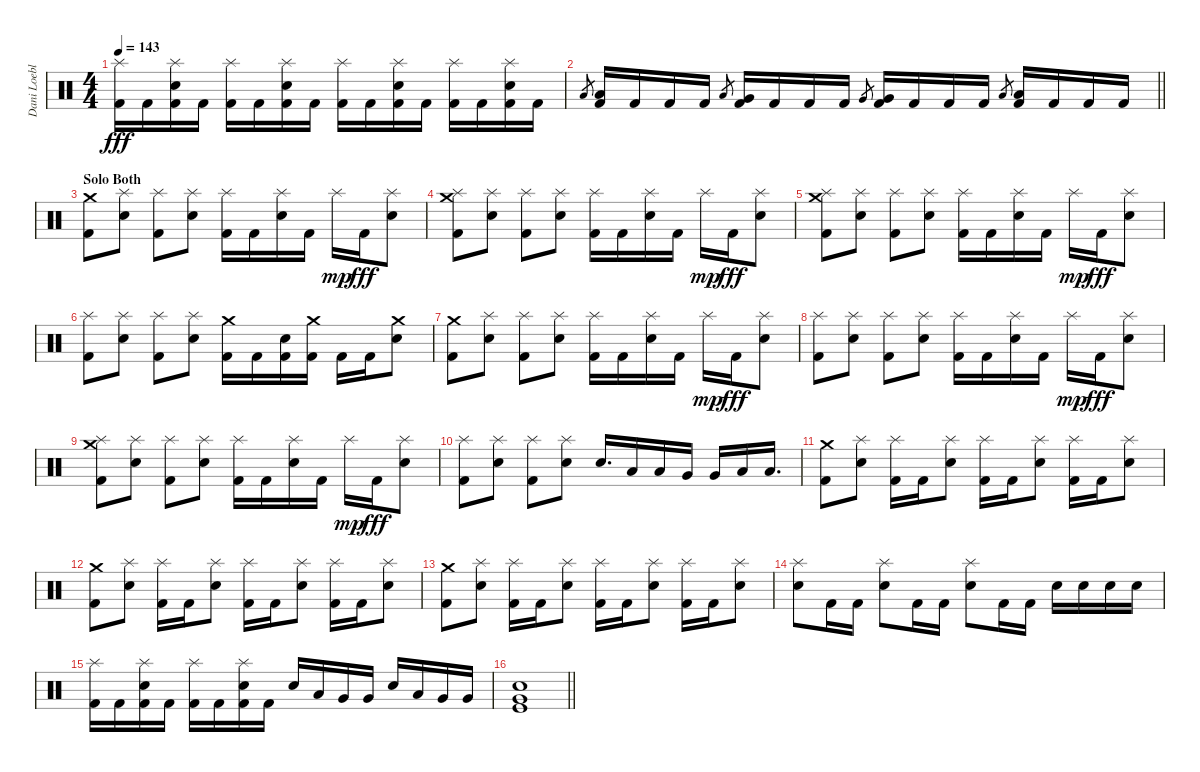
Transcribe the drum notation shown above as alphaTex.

\track ("Dani Loeble" "Dani Loebl") {instrument percussion}
\staff {score}
\articulation defaults
\ts (4 4)
\tempo 143
\clef neutral
\ks c
("Splash (hit)" "Kick (hit) 2").16{dy fff} "Kick (hit) 2".16 ("Splash (hit)" "Electric Snare (hit)" "Kick (hit) 2").16 "Kick (hit) 2".16 ("Splash (hit)" "Kick (hit) 2").16 "Kick (hit) 2".16 ("Splash (hit)" "Electric Snare (hit)" "Kick (hit) 2").16 "Kick (hit) 2".16 ("Splash (hit)" "Kick (hit) 2").16 "Kick (hit) 2".16 ("Splash (hit)" "Electric Snare (hit)" "Kick (hit) 2").16 "Kick (hit) 2".16 ("Splash (hit)" "Kick (hit) 2").16 "Kick (hit) 2".16 ("Splash (hit)" "Electric Snare (hit)" "Kick (hit) 2").16 "Kick (hit) 2".16 |
\barLineRight lightlight "Low Tom (hit)".8{gr}
("Low Tom (hit)" "Kick (hit) 2").16 "Kick (hit) 2".16 "Kick (hit) 2".16 "Kick (hit) 2".16 "Low Tom (hit)".8{gr} ("Very Low Tom (hit)" "Kick (hit) 2").16 "Kick (hit) 2".16 "Kick (hit) 2".16 "Kick (hit) 2".16 "Very Low Tom (hit)".8{gr} ("Very Low Tom (hit)" "Kick (hit) 2").16 "Kick (hit) 2".16 "Kick (hit) 2".16 "Kick (hit) 2".16 "Low Floor Tom (hit)".8{gr} ("Low Floor Tom (hit)" "Kick (hit) 2").16 "Kick (hit) 2".16 "Kick (hit) 2".16 "Kick (hit) 2".16 |
\section ("" "Solo Both")
("Crash medium (hit)" "Kick (hit) 2").8 ("Splash (hit)" "Electric Snare (hit)").8 ("Splash (hit)" "Kick (hit) 2").8 ("Splash (hit)" "Electric Snare (hit)").8 ("Splash (hit)" "Kick (hit) 2").16 "Kick (hit) 2".16 ("Splash (hit)" "Electric Snare (hit)").16 "Kick (hit) 2".16 "Splash (hit)".16{dy mp} "Kick (hit) 2".16{dy fff} ("Splash (hit)" "Electric Snare (hit)").8 |
("Splash (hit)" "Crash medium (hit)" "Kick (hit) 2").8 ("Splash (hit)" "Electric Snare (hit)").8 ("Splash (hit)" "Kick (hit) 2").8 ("Splash (hit)" "Electric Snare (hit)").8 ("Splash (hit)" "Kick (hit) 2").16 "Kick (hit) 2".16 ("Splash (hit)" "Electric Snare (hit)").16 "Kick (hit) 2".16 "Splash (hit)".16{dy mp} "Kick (hit) 2".16{dy fff} ("Splash (hit)" "Electric Snare (hit)").8 |
("Splash (hit)" "Crash medium (hit)" "Kick (hit) 2").8 ("Splash (hit)" "Electric Snare (hit)").8 ("Splash (hit)" "Kick (hit) 2").8 ("Splash (hit)" "Electric Snare (hit)").8 ("Splash (hit)" "Kick (hit) 2").16 "Kick (hit) 2".16 ("Splash (hit)" "Electric Snare (hit)").16 "Kick (hit) 2".16 "Splash (hit)".16{dy mp} "Kick (hit) 2".16{dy fff} ("Splash (hit)" "Electric Snare (hit)").8 |
("Splash (hit)" "Kick (hit) 2").8 ("Splash (hit)" "Electric Snare (hit)").8 ("Splash (hit)" "Kick (hit) 2").8 ("Splash (hit)" "Electric Snare (hit)").8 ("Crash medium (hit)" "Kick (hit) 2").16 "Kick (hit) 2".16 ("Electric Snare (hit)" "Kick (hit) 2").16 ("Crash medium (hit)" "Kick (hit) 2").16 "Kick (hit) 2".16 "Kick (hit) 2".16 ("Crash medium (hit)" "Electric Snare (hit)").8 |
("Crash medium (hit)" "Kick (hit) 2").8 ("Splash (hit)" "Electric Snare (hit)").8 ("Splash (hit)" "Kick (hit) 2").8 ("Splash (hit)" "Electric Snare (hit)").8 ("Splash (hit)" "Kick (hit) 2").16 "Kick (hit) 2".16 ("Splash (hit)" "Electric Snare (hit)").16 "Kick (hit) 2".16 "Splash (hit)".16{dy mp} "Kick (hit) 2".16{dy fff} ("Splash (hit)" "Electric Snare (hit)").8 |
("Splash (hit)" "Kick (hit) 2").8 ("Splash (hit)" "Electric Snare (hit)").8 ("Splash (hit)" "Kick (hit) 2").8 ("Splash (hit)" "Electric Snare (hit)").8 ("Splash (hit)" "Kick (hit) 2").16 "Kick (hit) 2".16 ("Splash (hit)" "Electric Snare (hit)").16 "Kick (hit) 2".16 "Splash (hit)".16{dy mp} "Kick (hit) 2".16{dy fff} ("Splash (hit)" "Electric Snare (hit)").8 |
("Splash (hit)" "Crash medium (hit)" "Kick (hit) 2").8 ("Splash (hit)" "Electric Snare (hit)").8 ("Splash (hit)" "Kick (hit) 2").8 ("Splash (hit)" "Electric Snare (hit)").8 ("Splash (hit)" "Kick (hit) 2").16 "Kick (hit) 2".16 ("Splash (hit)" "Electric Snare (hit)").16 "Kick (hit) 2".16 "Splash (hit)".16{dy mp} "Kick (hit) 2".16{dy fff} ("Splash (hit)" "Electric Snare (hit)").8 |
("Splash (hit)" "Kick (hit) 2").8 ("Splash (hit)" "Electric Snare (hit)").8 ("Splash (hit)" "Kick (hit) 2").8 ("Splash (hit)" "Electric Snare (hit)").8 "Electric Snare (hit)".16{d} "Low Tom (hit)".16 "Low Tom (hit)".16 "Very Low Tom (hit)".16 "Very Low Tom (hit)".16 "Low Floor Tom (hit)".16 "Low Floor Tom (hit)".16{d} |
("Crash medium (hit)" "Kick (hit) 2").8 ("Splash (hit)" "Electric Snare (hit)").8 ("Splash (hit)" "Kick (hit) 2").16 "Kick (hit) 2".16 ("Splash (hit)" "Electric Snare (hit)").8 ("Splash (hit)" "Kick (hit) 2").16 "Kick (hit) 2".16 ("Splash (hit)" "Electric Snare (hit)").8 ("Splash (hit)" "Kick (hit) 2").16 "Kick (hit) 2".16 ("Splash (hit)" "Electric Snare (hit)").8 |
("Crash medium (hit)" "Kick (hit) 2").8 ("Splash (hit)" "Electric Snare (hit)").8 ("Splash (hit)" "Kick (hit) 2").16 "Kick (hit) 2".16 ("Splash (hit)" "Electric Snare (hit)").8 ("Splash (hit)" "Kick (hit) 2").16 "Kick (hit) 2".16 ("Splash (hit)" "Electric Snare (hit)").8 ("Splash (hit)" "Kick (hit) 2").16 "Kick (hit) 2".16 ("Splash (hit)" "Electric Snare (hit)").8 |
("Crash medium (hit)" "Kick (hit) 2").8 ("Splash (hit)" "Electric Snare (hit)").8 ("Splash (hit)" "Kick (hit) 2").16 "Kick (hit) 2".16 ("Splash (hit)" "Electric Snare (hit)").8 ("Splash (hit)" "Kick (hit) 2").16 "Kick (hit) 2".16 ("Splash (hit)" "Electric Snare (hit)").8 ("Splash (hit)" "Kick (hit) 2").16 "Kick (hit) 2".16 ("Splash (hit)" "Electric Snare (hit)").8 |
("Splash (hit)" "Electric Snare (hit)").8 "Kick (hit) 2".16 "Kick (hit) 2".16 ("Splash (hit)" "Electric Snare (hit)").8 "Kick (hit) 2".16 "Kick (hit) 2".16 ("Splash (hit)" "Electric Snare (hit)").8 "Kick (hit) 2".16 "Kick (hit) 2".16 "Electric Snare (hit)".16 "Electric Snare (hit)".16 "Electric Snare (hit)".16 "Electric Snare (hit)".16 |
("Splash (hit)" "Kick (hit) 2").16 "Kick (hit) 2".16 ("Splash (hit)" "Electric Snare (hit)" "Kick (hit) 2").16 "Kick (hit) 2".16 ("Splash (hit)" "Kick (hit) 2").16 "Kick (hit) 2".16 ("Splash (hit)" "Electric Snare (hit)" "Kick (hit) 2").16 "Kick (hit) 2".16 "Electric Snare (hit)".16 "Low Tom (hit)".16 "Very Low Tom (hit)".16 "Very Low Tom (hit)".16 "Electric Snare (hit)".16 "Low Tom (hit)".16 "Very Low Tom (hit)".16 "Very Low Tom (hit)".16 |
\barLineRight lightlight
("Electric Snare (hit)" "Very Low Tom (hit)" "Kick (hit)").1
